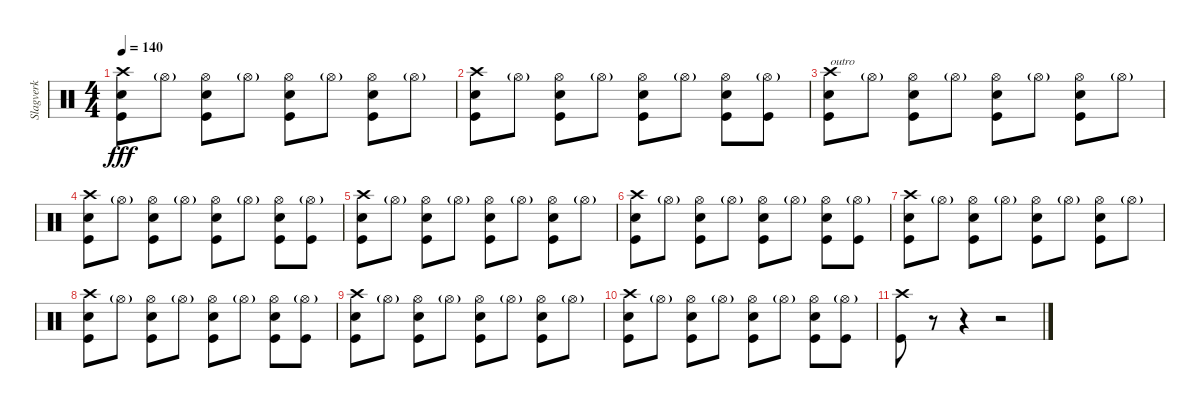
\track ("Slagverk" "Slagverk") {instrument percussion}
\staff {score}
\articulation defaults
\ts (4 4)
\tempo 140
\clef neutral
\ks c
("Crash high (hit)" "Kick (hit)" "Snare (hit) 2").8{dy fff} "Hi-Hat (open)"{g}.8 ("Hi-Hat (open)" "Kick (hit)" "Snare (hit) 2").8 "Hi-Hat (open)"{g}.8 ("Hi-Hat (open)" "Kick (hit)" "Snare (hit) 2").8 "Hi-Hat (open)"{g}.8 ("Hi-Hat (open)" "Kick (hit)" "Snare (hit) 2").8 "Hi-Hat (open)"{g}.8 |
("Crash high (hit)" "Kick (hit)" "Snare (hit) 2").8 "Hi-Hat (open)"{g}.8 ("Hi-Hat (open)" "Kick (hit)" "Snare (hit) 2").8 "Hi-Hat (open)"{g}.8 ("Hi-Hat (open)" "Kick (hit)" "Snare (hit) 2").8 "Hi-Hat (open)"{g}.8 ("Hi-Hat (open)" "Kick (hit)" "Snare (hit) 2").8 ("Hi-Hat (open)"{g} "Kick (hit)").8 |
("Crash high (hit)" "Kick (hit)" "Snare (hit) 2").8{txt "outro"} "Hi-Hat (open)"{g}.8 ("Hi-Hat (open)" "Kick (hit)" "Snare (hit) 2").8 "Hi-Hat (open)"{g}.8 ("Hi-Hat (open)" "Kick (hit)" "Snare (hit) 2").8 "Hi-Hat (open)"{g}.8 ("Hi-Hat (open)" "Kick (hit)" "Snare (hit) 2").8 "Hi-Hat (open)"{g}.8 |
("Crash high (hit)" "Kick (hit)" "Snare (hit) 2").8 "Hi-Hat (open)"{g}.8 ("Hi-Hat (open)" "Kick (hit)" "Snare (hit) 2").8 "Hi-Hat (open)"{g}.8 ("Hi-Hat (open)" "Kick (hit)" "Snare (hit) 2").8 "Hi-Hat (open)"{g}.8 ("Hi-Hat (open)" "Kick (hit)" "Snare (hit) 2").8 ("Hi-Hat (open)"{g} "Kick (hit)").8 |
("Crash high (hit)" "Kick (hit)" "Snare (hit) 2").8 "Hi-Hat (open)"{g}.8 ("Hi-Hat (open)" "Kick (hit)" "Snare (hit) 2").8 "Hi-Hat (open)"{g}.8 ("Hi-Hat (open)" "Kick (hit)" "Snare (hit) 2").8 "Hi-Hat (open)"{g}.8 ("Hi-Hat (open)" "Kick (hit)" "Snare (hit) 2").8 "Hi-Hat (open)"{g}.8 |
("Crash high (hit)" "Kick (hit)" "Snare (hit) 2").8 "Hi-Hat (open)"{g}.8 ("Hi-Hat (open)" "Kick (hit)" "Snare (hit) 2").8 "Hi-Hat (open)"{g}.8 ("Hi-Hat (open)" "Kick (hit)" "Snare (hit) 2").8 "Hi-Hat (open)"{g}.8 ("Hi-Hat (open)" "Kick (hit)" "Snare (hit) 2").8 ("Hi-Hat (open)"{g} "Kick (hit)").8 |
("Crash high (hit)" "Kick (hit)" "Snare (hit) 2").8 "Hi-Hat (open)"{g}.8 ("Hi-Hat (open)" "Kick (hit)" "Snare (hit) 2").8 "Hi-Hat (open)"{g}.8 ("Hi-Hat (open)" "Kick (hit)" "Snare (hit) 2").8 "Hi-Hat (open)"{g}.8 ("Hi-Hat (open)" "Kick (hit)" "Snare (hit) 2").8 "Hi-Hat (open)"{g}.8 |
("Crash high (hit)" "Kick (hit)" "Snare (hit) 2").8 "Hi-Hat (open)"{g}.8 ("Hi-Hat (open)" "Kick (hit)" "Snare (hit) 2").8 "Hi-Hat (open)"{g}.8 ("Hi-Hat (open)" "Kick (hit)" "Snare (hit) 2").8 "Hi-Hat (open)"{g}.8 ("Hi-Hat (open)" "Kick (hit)" "Snare (hit) 2").8 ("Hi-Hat (open)"{g} "Kick (hit)").8 |
("Crash high (hit)" "Kick (hit)" "Snare (hit) 2").8 "Hi-Hat (open)"{g}.8 ("Hi-Hat (open)" "Kick (hit)" "Snare (hit) 2").8 "Hi-Hat (open)"{g}.8 ("Hi-Hat (open)" "Kick (hit)" "Snare (hit) 2").8 "Hi-Hat (open)"{g}.8 ("Hi-Hat (open)" "Kick (hit)" "Snare (hit) 2").8 "Hi-Hat (open)"{g}.8 |
("Crash high (hit)" "Kick (hit)" "Snare (hit) 2").8 "Hi-Hat (open)"{g}.8 ("Hi-Hat (open)" "Kick (hit)" "Snare (hit) 2").8 "Hi-Hat (open)"{g}.8 ("Hi-Hat (open)" "Kick (hit)" "Snare (hit) 2").8 "Hi-Hat (open)"{g}.8 ("Hi-Hat (open)" "Kick (hit)" "Snare (hit) 2").8 ("Hi-Hat (open)"{g} "Kick (hit)").8 |
("Crash high (hit)" "Kick (hit)").8 r.8 r.4 r.2
